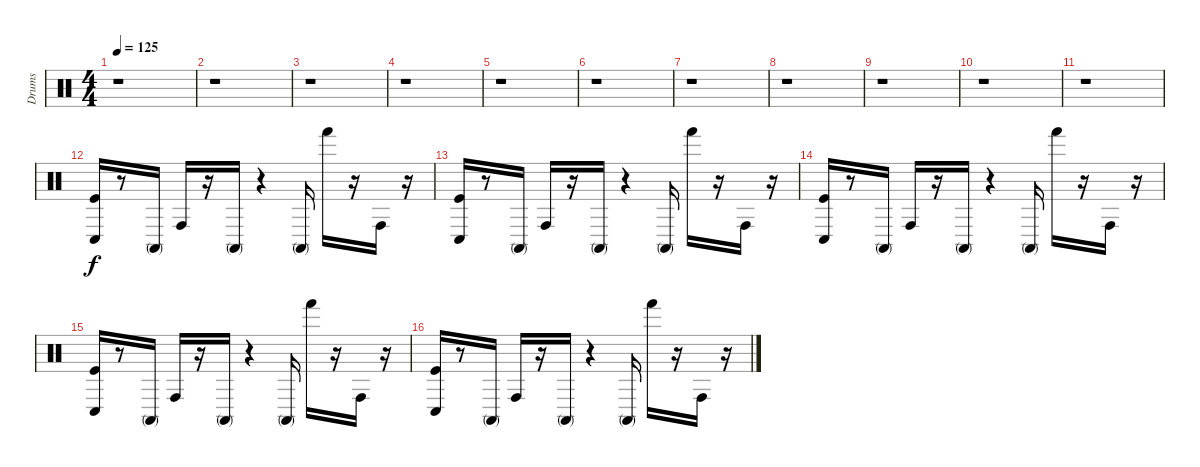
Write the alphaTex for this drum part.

\track ("Drums" "Drums") {instrument percussion}
\staff {score}
\articulation defaults
\ts (4 4)
\tempo 125
\clef neutral
\ks c
r.1{dy f} |
r.1 |
r.1 |
r.1 |
r.1 |
r.1 |
r.1 |
r.1 |
r.1 |
r.1 |
r.1 |
("Kick (hit)" "Conga low (hit)").16{volume 13} r.8 "Conga high (mute)".16 "Conga high (hit)".16 r.16 "Conga high (mute)".16 r.4 "Conga high (mute)".16 "Hand (hit)".16 r.16 "Conga high (hit)".16 r.16 |
("Kick (hit)" "Conga low (hit)").16 r.8 "Conga high (mute)".16 "Conga high (hit)".16 r.16 "Conga high (mute)".16 r.4 "Conga high (mute)".16 "Hand (hit)".16 r.16 "Conga high (hit)".16 r.16 |
("Kick (hit)" "Conga low (hit)").16 r.8 "Conga high (mute)".16 "Conga high (hit)".16 r.16 "Conga high (mute)".16 r.4 "Conga high (mute)".16 "Hand (hit)".16 r.16 "Conga high (hit)".16 r.16 |
("Kick (hit)" "Conga low (hit)").16 r.8 "Conga high (mute)".16 "Conga high (hit)".16 r.16 "Conga high (mute)".16 r.4 "Conga high (mute)".16 "Hand (hit)".16 r.16 "Conga high (hit)".16 r.16 |
("Kick (hit)" "Conga low (hit)").16 r.8 "Conga high (mute)".16 "Conga high (hit)".16 r.16 "Conga high (mute)".16 r.4 "Conga high (mute)".16 "Hand (hit)".16 r.16 "Conga high (hit)".16 r.16
